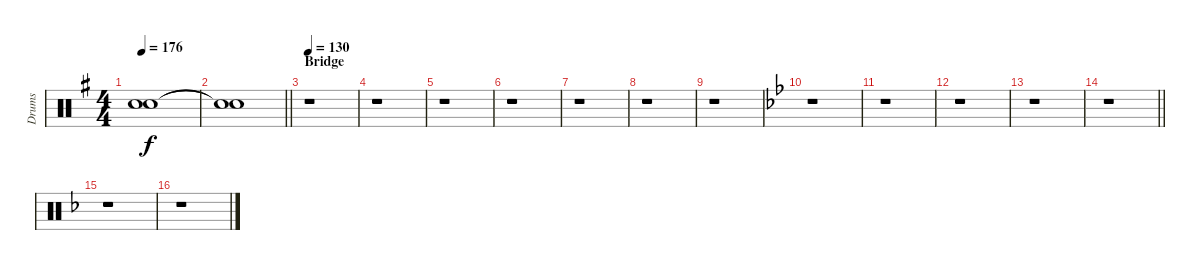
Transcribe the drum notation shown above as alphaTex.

\track ("Drums" "Drums") {instrument percussion}
\staff {score}
\articulation defaults
\ts (4 4)
\tempo 176
\clef neutral
\ks eminor
("Snare (hit)"{t} "Snare (hit)"{t}).1{dy f} |
\barLineRight lightlight
("Snare (hit)"{t} "Snare (hit)"{t}).1 |
\section ("" "Bridge")
\tempo 130
r.1 |
r.1 |
r.1 |
r.1 |
r.1 |
r.1 |
r.1 |
\ks gminor
r.1 |
r.1 |
r.1 |
r.1 |
\barLineRight lightlight
r.1 |
\section ("" "")
\ks dminor
r.1 |
r.1
